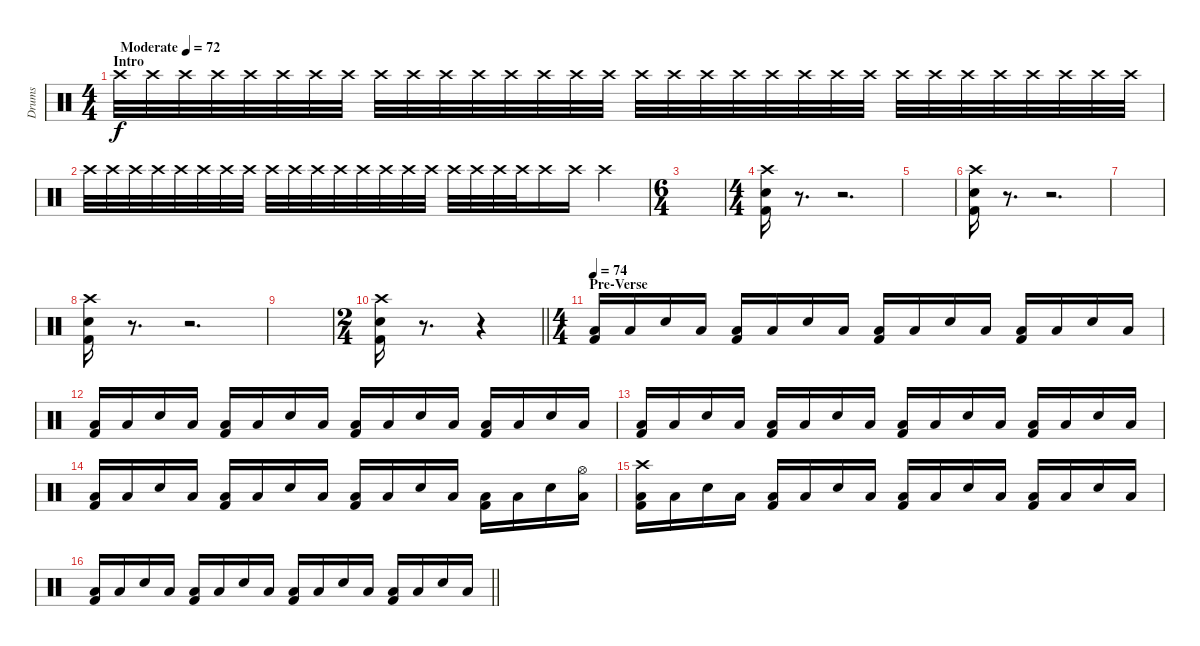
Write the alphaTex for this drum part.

\track ("Drums" "Drums") {instrument percussion}
\staff {score}
\articulation defaults
\ts (4 4)
\section ("" "Intro")
\tempo (72 "Moderate")
\clef neutral
\ks c "Crash high (hit)".32{dy f} "Crash high (hit)".32 "Crash high (hit)".32 "Crash high (hit)".32 "Crash high (hit)".32 "Crash high (hit)".32 "Crash high (hit)".32 "Crash high (hit)".32 "Crash high (hit)".32 "Crash high (hit)".32 "Crash high (hit)".32 "Crash high (hit)".32 "Crash high (hit)".32 "Crash high (hit)".32 "Crash high (hit)".32 "Crash high (hit)".32 "Crash high (hit)".32 "Crash high (hit)".32 "Crash high (hit)".32 "Crash high (hit)".32 "Crash high (hit)".32 "Crash high (hit)".32 "Crash high (hit)".32 "Crash high (hit)".32 "Crash high (hit)".32 "Crash high (hit)".32 "Crash high (hit)".32 "Crash high (hit)".32 "Crash high (hit)".32 "Crash high (hit)".32 "Crash high (hit)".32 "Crash high (hit)".32
|
"Crash high (hit)".32 "Crash high (hit)".32 "Crash high (hit)".32 "Crash high (hit)".32 "Crash high (hit)".32 "Crash high (hit)".32 "Crash high (hit)".32 "Crash high (hit)".32 "Crash high (hit)".32 "Crash high (hit)".32 "Crash high (hit)".32 "Crash high (hit)".32 "Crash high (hit)".32 "Crash high (hit)".32 "Crash high (hit)".32 "Crash high (hit)".32 "Crash high (hit)".32 "Crash high (hit)".32 "Crash high (hit)".32 "Crash high (hit)".32 "Crash high (hit)".16 "Crash high (hit)".16 "Crash high (hit)".4 |
\ts (6 4)
|
\ts (4 4)
("Crash high (hit)" "Snare (hit) 2" "Kick (hit) 2").16 r.8{d} r.2{d} |
|
("Crash high (hit)" "Snare (hit) 2" "Kick (hit) 2").16 r.8{d} r.2{d} |
|
("Crash high (hit)" "Snare (hit) 2" "Kick (hit) 2").16 r.8{d} r.2{d} |
|
\ts (2 4)
\barLineRight lightlight
("Crash high (hit)" "Snare (hit) 2" "Kick (hit) 2").16 r.8{d} r.4 |
\ts (4 4)
\section ("" "Pre-Verse")
\tempo 74
("Low Floor Tom (hit)" "Kick (hit) 2").16 "Low Floor Tom (hit)".16 "Snare (hit) 2".16 "Low Floor Tom (hit)".16 ("Low Floor Tom (hit)" "Kick (hit) 2").16 "Low Floor Tom (hit)".16 "Snare (hit) 2".16 "Low Floor Tom (hit)".16 ("Low Floor Tom (hit)" "Kick (hit) 2").16 "Low Floor Tom (hit)".16 "Snare (hit) 2".16 "Low Floor Tom (hit)".16 ("Low Floor Tom (hit)" "Kick (hit) 2").16 "Low Floor Tom (hit)".16 "Snare (hit) 2".16 "Low Floor Tom (hit)".16 |
("Low Floor Tom (hit)" "Kick (hit) 2").16 "Low Floor Tom (hit)".16 "Snare (hit) 2".16 "Low Floor Tom (hit)".16 ("Low Floor Tom (hit)" "Kick (hit) 2").16 "Low Floor Tom (hit)".16 "Snare (hit) 2".16 "Low Floor Tom (hit)".16 ("Low Floor Tom (hit)" "Kick (hit) 2").16 "Low Floor Tom (hit)".16 "Snare (hit) 2".16 "Low Floor Tom (hit)".16 ("Low Floor Tom (hit)" "Kick (hit) 2").16 "Low Floor Tom (hit)".16 "Snare (hit) 2".16 "Low Floor Tom (hit)".16 |
("Low Floor Tom (hit)" "Kick (hit) 2").16 "Low Floor Tom (hit)".16 "Snare (hit) 2".16 "Low Floor Tom (hit)".16 ("Low Floor Tom (hit)" "Kick (hit) 2").16 "Low Floor Tom (hit)".16 "Snare (hit) 2".16 "Low Floor Tom (hit)".16 ("Low Floor Tom (hit)" "Kick (hit) 2").16 "Low Floor Tom (hit)".16 "Snare (hit) 2".16 "Low Floor Tom (hit)".16 ("Low Floor Tom (hit)" "Kick (hit) 2").16 "Low Floor Tom (hit)".16 "Snare (hit) 2".16 "Low Floor Tom (hit)".16 |
("Low Floor Tom (hit)" "Kick (hit) 2").16 "Low Floor Tom (hit)".16 "Snare (hit) 2".16 "Low Floor Tom (hit)".16 ("Low Floor Tom (hit)" "Kick (hit) 2").16 "Low Floor Tom (hit)".16 "Snare (hit) 2".16 "Low Floor Tom (hit)".16 ("Low Floor Tom (hit)" "Kick (hit) 2").16 "Low Floor Tom (hit)".16 "Snare (hit) 2".16 "Low Floor Tom (hit)".16 ("Low Floor Tom (hit)" "Kick (hit) 2").16 "Low Floor Tom (hit)".16 "Snare (hit) 2".16 ("Hi-Hat (open)" "Low Floor Tom (hit)").16 |
("Crash high (hit)" "Low Floor Tom (hit)" "Kick (hit) 2").16 "Low Floor Tom (hit)".16 "Snare (hit) 2".16 "Low Floor Tom (hit)".16 ("Low Floor Tom (hit)" "Kick (hit) 2").16 "Low Floor Tom (hit)".16 "Snare (hit) 2".16 "Low Floor Tom (hit)".16 ("Low Floor Tom (hit)" "Kick (hit) 2").16 "Low Floor Tom (hit)".16 "Snare (hit) 2".16 "Low Floor Tom (hit)".16 ("Low Floor Tom (hit)" "Kick (hit) 2").16 "Low Floor Tom (hit)".16 "Snare (hit) 2".16 "Low Floor Tom (hit)".16 |
\barLineRight lightlight
("Low Floor Tom (hit)" "Kick (hit) 2").16 "Low Floor Tom (hit)".16 "Snare (hit) 2".16 "Low Floor Tom (hit)".16 ("Low Floor Tom (hit)" "Kick (hit) 2").16 "Low Floor Tom (hit)".16 "Snare (hit) 2".16 "Low Floor Tom (hit)".16 ("Low Floor Tom (hit)" "Kick (hit) 2").16 "Low Floor Tom (hit)".16 "Snare (hit) 2".16 "Low Floor Tom (hit)".16 ("Low Floor Tom (hit)" "Kick (hit) 2").16 "Low Floor Tom (hit)".16 "Snare (hit) 2".16 "Low Floor Tom (hit)".16
